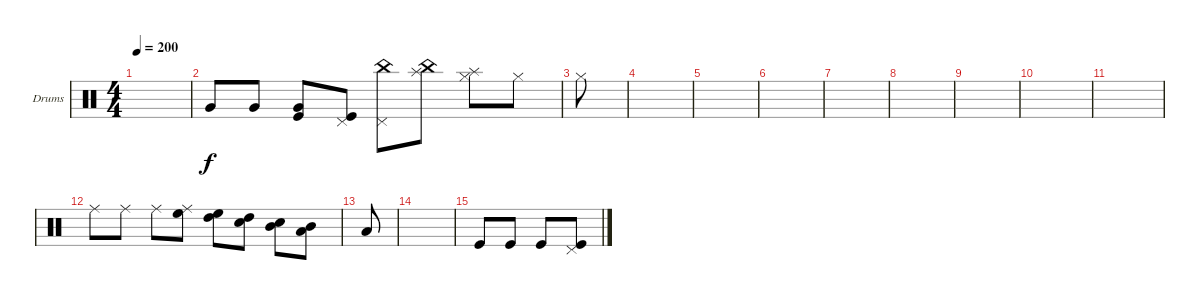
\defaultSystemsLayout 4
\bracketExtendMode groupsimilarinstruments
\firstSystemTrackNameOrientation horizontal
\otherSystemsTrackNameOrientation horizontal
\track ("Drumkit" "Drums") {instrument percussion}
\staff {score}
\articulation defaults
\ts (4 4)
\tempo 200
\clef neutral
\scale
0.333333
\ks c
|
\scale
0.333333 "Very Low Tom (hit)".8 "Very Low Tom (hit)".8 ("Very Low Tom (hit)" "Kick (hit)").8 ("Kick (hit)" "Pedal Hi-Hat (hit)").8 ("Pedal Hi-Hat (hit)" "China (hit)").8 ("China (hit)" "Splash (hit)").8 ("Splash (hit)" "Hi-Hat (closed)").8 "Hi-Hat (closed)".8 |
\scale
0.333333 "Hi-Hat (closed)".8 |
\scale
0.333333 |
\scale
0.333333 |
\scale
0.333333 |
\scale
0.333333 |
\scale
0.333333 |
\scale
0.333333 |
\scale
0.333333 |
\scale
0.333333 |
\scale
0.333333 "Ride (middle)".8 "Ride (middle)".8 "Ride (middle)".8 ("Ride (middle)" "High Floor Tom (hit)").8 ("High Floor Tom (hit)" "High Tom (hit)").8 ("High Tom (hit)" "Snare (hit) 2").8 ("Snare (hit) 2" "Mid Tom (hit)").8 ("Mid Tom (hit)" "Low Tom (hit)").8 |
\scale
0.333333 "Low Tom (hit)".8 |
\scale
0.333333 |
\scale
0.333333 "Kick (hit)".8 "Kick (hit)".8 "Kick (hit)".8 ("Kick (hit)" "Pedal Hi-Hat (hit)").8 |
\scale
0.333333
